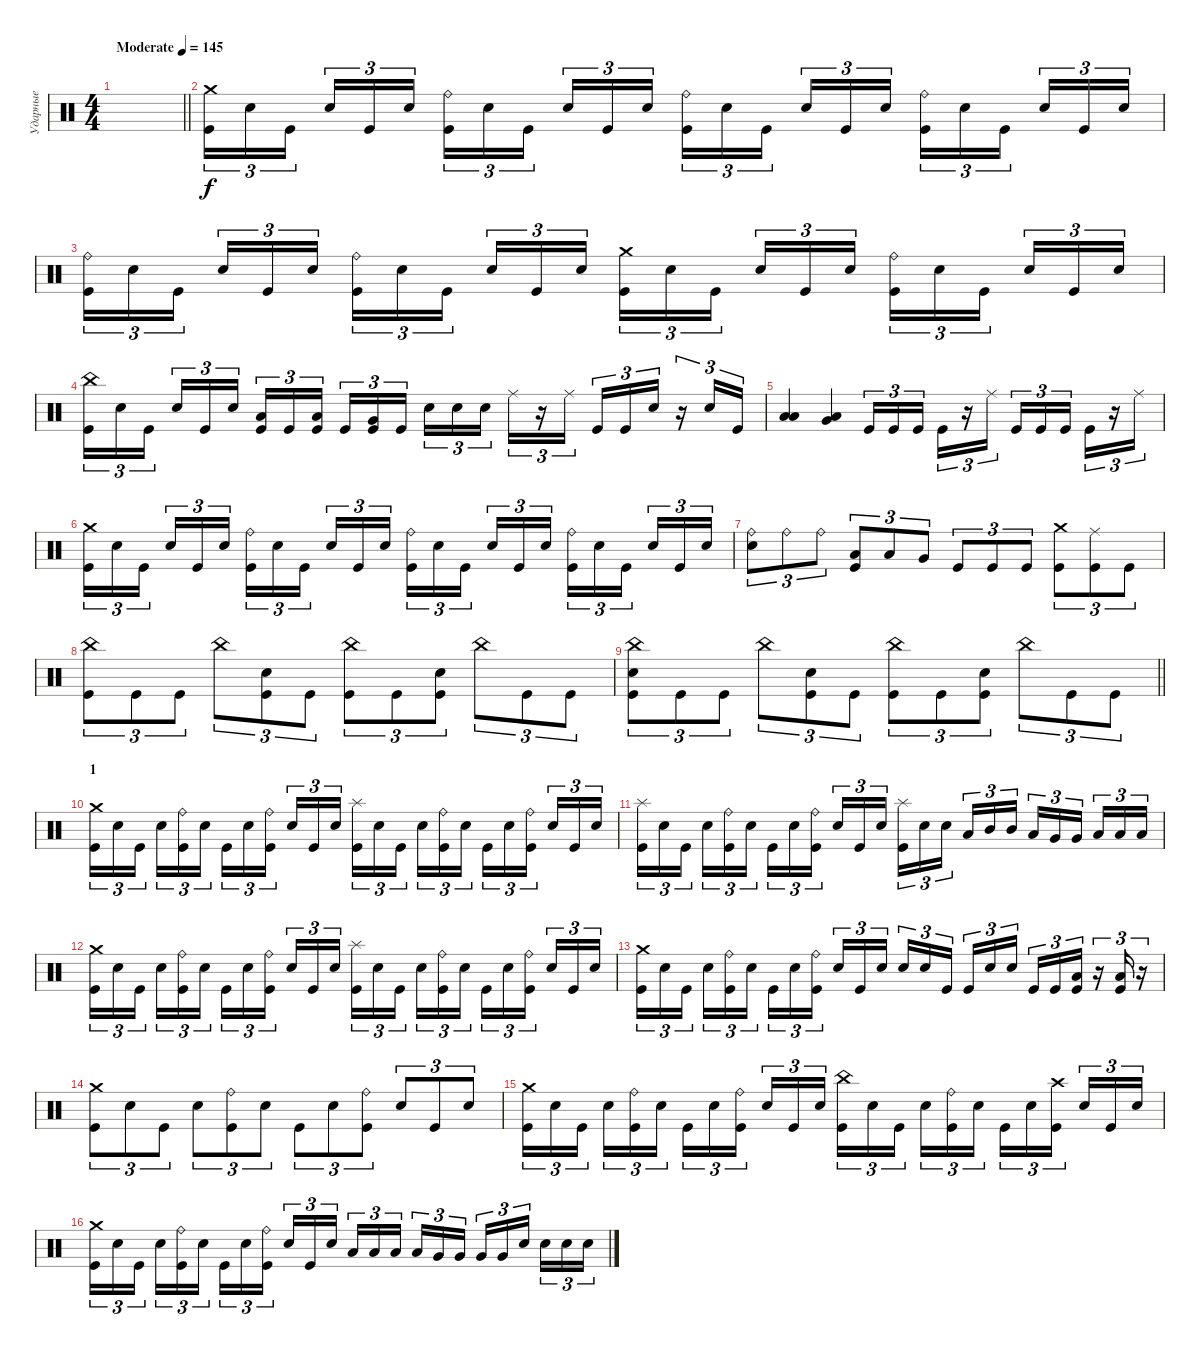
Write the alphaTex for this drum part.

\track ("Ударные" "Ударные") {instrument percussion}
\staff {score}
\articulation defaults
\ts (4 4)
\tempo (145 "Moderate")
\clef neutral
\barLineRight lightlight
\ks c
|
\section ("" " ")
("Crash medium (hit)" "Kick (hit)").16{tu (3 2)} "Electric Snare (hit)".16{tu (3 2)} "Kick (hit)".16{tu (3 2) beam splitsecondary} "Electric Snare (hit)".16{tu (3 2)} "Kick (hit)".16{tu (3 2)} "Electric Snare (hit)".16{tu (3 2)} ("Ride (bell)" "Kick (hit)").16{tu (3 2)} "Electric Snare (hit)".16{tu (3 2)} "Kick (hit)".16{tu (3 2) beam splitsecondary} "Electric Snare (hit)".16{tu (3 2)} "Kick (hit)".16{tu (3 2)} "Electric Snare (hit)".16{tu (3 2)} ("Ride (bell)" "Kick (hit)").16{tu (3 2)} "Electric Snare (hit)".16{tu (3 2)} "Kick (hit)".16{tu (3 2) beam splitsecondary} "Electric Snare (hit)".16{tu (3 2)} "Kick (hit)".16{tu (3 2)} "Electric Snare (hit)".16{tu (3 2)} ("Ride (bell)" "Kick (hit)").16{tu (3 2)} "Electric Snare (hit)".16{tu (3 2)} "Kick (hit)".16{tu (3 2) beam splitsecondary} "Electric Snare (hit)".16{tu (3 2)} "Kick (hit)".16{tu (3 2)} "Electric Snare (hit)".16{tu (3 2)} |
("Ride (bell)" "Kick (hit)").16{tu (3 2)} "Electric Snare (hit)".16{tu (3 2)} "Kick (hit)".16{tu (3 2) beam splitsecondary} "Electric Snare (hit)".16{tu (3 2)} "Kick (hit)".16{tu (3 2)} "Electric Snare (hit)".16{tu (3 2)} ("Ride (bell)" "Kick (hit)").16{tu (3 2)} "Electric Snare (hit)".16{tu (3 2)} "Kick (hit)".16{tu (3 2) beam splitsecondary} "Electric Snare (hit)".16{tu (3 2)} "Kick (hit)".16{tu (3 2)} "Electric Snare (hit)".16{tu (3 2)} ("Crash medium (hit)" "Kick (hit)").16{tu (3 2)} "Electric Snare (hit)".16{tu (3 2)} "Kick (hit)".16{tu (3 2) beam splitsecondary} "Electric Snare (hit)".16{tu (3 2)} "Kick (hit)".16{tu (3 2)} "Electric Snare (hit)".16{tu (3 2)} ("Ride (bell)" "Kick (hit)").16{tu (3 2)} "Electric Snare (hit)".16{tu (3 2)} "Kick (hit)".16{tu (3 2) beam splitsecondary} "Electric Snare (hit)".16{tu (3 2)} "Kick (hit)".16{tu (3 2)} "Electric Snare (hit)".16{tu (3 2)} |
("China (hit)" "Kick (hit)").16{tu (3 2)} "Electric Snare (hit)".16{tu (3 2)} "Kick (hit)".16{tu (3 2) beam splitsecondary} "Electric Snare (hit)".16{tu (3 2)} "Kick (hit)".16{tu (3 2)} "Electric Snare (hit)".16{tu (3 2)} ("Low Tom (hit)" "Kick (hit)").16{tu (3 2)} "Kick (hit)".16{tu (3 2)} ("Low Tom (hit)" "Kick (hit)").16{tu (3 2) beam splitsecondary} "Kick (hit)".16{tu (3 2)} ("Very Low Tom (hit)" "Kick (hit)").16{tu (3 2)} "Kick (hit)".16{tu (3 2)} "Electric Snare (hit)".16{tu (3 2)} "Electric Snare (hit)".16{tu (3 2)} "Electric Snare (hit)".16{tu (3 2) beam splitsecondary} "Ride (middle)".16{tu (3 2)} r.16{tu (3 2)} "Ride (middle)".16{tu (3 2)} "Kick (hit)".16{tu (3 2)} "Kick (hit)".16{tu (3 2)} "Electric Snare (hit)".16{tu (3 2)} r.16{tu (3 2)} "Electric Snare (hit)".16{tu (3 2)} "Kick (hit)".16{tu (3 2)} |
("Low Tom (hit)" "Low Floor Tom (hit)").4 ("Very Low Tom (hit)" "Low Floor Tom (hit)").4 "Kick (hit)".16{tu (3 2)} "Kick (hit)".16{tu (3 2)} "Kick (hit)".16{tu (3 2) beam splitsecondary} "Kick (hit)".16{tu (3 2)} r.16{tu (3 2)} "Ride (middle)".16{tu (3 2)} "Kick (hit)".16{tu (3 2)} "Kick (hit)".16{tu (3 2)} "Kick (hit)".16{tu (3 2) beam splitsecondary} "Kick (hit)".16{tu (3 2)} r.16{tu (3 2)} "Ride (middle)".16{tu (3 2)} |
("Crash medium (hit)" "Kick (hit)").16{tu (3 2)} "Electric Snare (hit)".16{tu (3 2)} "Kick (hit)".16{tu (3 2) beam splitsecondary} "Electric Snare (hit)".16{tu (3 2)} "Kick (hit)".16{tu (3 2)} "Electric Snare (hit)".16{tu (3 2)} ("Ride (bell)" "Kick (hit)").16{tu (3 2)} "Electric Snare (hit)".16{tu (3 2)} "Kick (hit)".16{tu (3 2) beam splitsecondary} "Electric Snare (hit)".16{tu (3 2)} "Kick (hit)".16{tu (3 2)} "Electric Snare (hit)".16{tu (3 2)} ("Ride (bell)" "Kick (hit)").16{tu (3 2)} "Electric Snare (hit)".16{tu (3 2)} "Kick (hit)".16{tu (3 2) beam splitsecondary} "Electric Snare (hit)".16{tu (3 2)} "Kick (hit)".16{tu (3 2)} "Electric Snare (hit)".16{tu (3 2)} ("Ride (bell)" "Kick (hit)").16{tu (3 2)} "Electric Snare (hit)".16{tu (3 2)} "Kick (hit)".16{tu (3 2) beam splitsecondary} "Electric Snare (hit)".16{tu (3 2)} "Kick (hit)".16{tu (3 2)} "Electric Snare (hit)".16{tu (3 2)} |
("Ride (bell)" "Electric Snare (hit)").8{tu (3 2)} "Ride (bell)".8{tu (3 2)} "Ride (bell)".8{tu (3 2)} ("Low Tom (hit)" "Kick (hit)").8{tu (3 2)} "Low Tom (hit)".8{tu (3 2)} "Very Low Tom (hit)".8{tu (3 2)} "Kick (hit)".8{tu (3 2)} "Kick (hit)".8{tu (3 2)} "Kick (hit)".8{tu (3 2)} ("Crash medium (hit)" "Kick (hit)").8{tu (3 2)} ("Ride (middle)" "Kick (hit)").8{tu (3 2)} "Kick (hit)".8{tu (3 2)} |
("China (hit)" "Kick (hit)").8{tu (3 2)} "Kick (hit)".8{tu (3 2)} "Kick (hit)".8{tu (3 2)} "China (hit)".8{tu (3 2)} ("Electric Snare (hit)" "Kick (hit)").8{tu (3 2)} "Kick (hit)".8{tu (3 2)} ("China (hit)" "Kick (hit)").8{tu (3 2)} "Kick (hit)".8{tu (3 2)} ("Electric Snare (hit)" "Kick (hit)").8{tu (3 2)} "China (hit)".8{tu (3 2)} "Kick (hit)".8{tu (3 2)} "Kick (hit)".8{tu (3 2)} |
\barLineRight lightlight
("China (hit)" "Electric Snare (hit)" "Kick (hit)").8{tu (3 2)} "Kick (hit)".8{tu (3 2)} "Kick (hit)".8{tu (3 2)} "China (hit)".8{tu (3 2)} ("Electric Snare (hit)" "Kick (hit)").8{tu (3 2)} "Kick (hit)".8{tu (3 2)} ("China (hit)" "Kick (hit)").8{tu (3 2)} "Kick (hit)".8{tu (3 2)} ("Electric Snare (hit)" "Kick (hit)").8{tu (3 2)} "China (hit)".8{tu (3 2)} "Kick (hit)".8{tu (3 2)} "Kick (hit)".8{tu (3 2)} |
\section ("" "1")
("Crash medium (hit)" "Kick (hit)").16{tu (3 2)} "Electric Snare (hit)".16{tu (3 2)} "Kick (hit)".16{tu (3 2) beam splitsecondary} "Electric Snare (hit)".16{tu (3 2)} ("Ride (bell)" "Kick (hit)").16{tu (3 2)} "Electric Snare (hit)".16{tu (3 2)} "Kick (hit)".16{tu (3 2)} "Electric Snare (hit)".16{tu (3 2)} ("Ride (bell)" "Kick (hit)").16{tu (3 2) beam splitsecondary} "Electric Snare (hit)".16{tu (3 2)} "Kick (hit)".16{tu (3 2)} "Electric Snare (hit)".16{tu (3 2)} ("Splash (hit)" "Kick (hit)").16{tu (3 2)} "Electric Snare (hit)".16{tu (3 2)} "Kick (hit)".16{tu (3 2) beam splitsecondary} "Electric Snare (hit)".16{tu (3 2)} ("Ride (bell)" "Kick (hit)").16{tu (3 2)} "Electric Snare (hit)".16{tu (3 2)} "Kick (hit)".16{tu (3 2)} "Electric Snare (hit)".16{tu (3 2)} ("Ride (bell)" "Kick (hit)").16{tu (3 2) beam splitsecondary} "Electric Snare (hit)".16{tu (3 2)} "Kick (hit)".16{tu (3 2)} "Electric Snare (hit)".16{tu (3 2)} |
("Splash (hit)" "Kick (hit)").16{tu (3 2)} "Electric Snare (hit)".16{tu (3 2)} "Kick (hit)".16{tu (3 2) beam splitsecondary} "Electric Snare (hit)".16{tu (3 2)} ("Ride (bell)" "Kick (hit)").16{tu (3 2)} "Electric Snare (hit)".16{tu (3 2)} "Kick (hit)".16{tu (3 2)} "Electric Snare (hit)".16{tu (3 2)} ("Ride (bell)" "Kick (hit)").16{tu (3 2) beam splitsecondary} "Electric Snare (hit)".16{tu (3 2)} "Kick (hit)".16{tu (3 2)} "Electric Snare (hit)".16{tu (3 2)} ("Splash (hit)" "Kick (hit)").16{tu (3 2)} "Electric Snare (hit)".16{tu (3 2)} "Electric Snare (hit)".16{tu (3 2) beam splitsecondary} "Low Tom (hit)".16{tu (3 2)} "Mid Tom (hit)".16{tu (3 2)} "Mid Tom (hit)".16{tu (3 2)} "Low Tom (hit)".16{tu (3 2)} "Very Low Tom (hit)".16{tu (3 2)} "Very Low Tom (hit)".16{tu (3 2) beam splitsecondary} "Low Floor Tom (hit)".16{tu (3 2)} "Low Floor Tom (hit)".16{tu (3 2)} "Low Floor Tom (hit)".16{tu (3 2)} |
("Crash medium (hit)" "Kick (hit)").16{tu (3 2)} "Electric Snare (hit)".16{tu (3 2)} "Kick (hit)".16{tu (3 2) beam splitsecondary} "Electric Snare (hit)".16{tu (3 2)} ("Ride (bell)" "Kick (hit)").16{tu (3 2)} "Electric Snare (hit)".16{tu (3 2)} "Kick (hit)".16{tu (3 2)} "Electric Snare (hit)".16{tu (3 2)} ("Ride (bell)" "Kick (hit)").16{tu (3 2) beam splitsecondary} "Electric Snare (hit)".16{tu (3 2)} "Kick (hit)".16{tu (3 2)} "Electric Snare (hit)".16{tu (3 2)} ("Splash (hit)" "Kick (hit)").16{tu (3 2)} "Electric Snare (hit)".16{tu (3 2)} "Kick (hit)".16{tu (3 2) beam splitsecondary} "Electric Snare (hit)".16{tu (3 2)} ("Ride (bell)" "Kick (hit)").16{tu (3 2)} "Electric Snare (hit)".16{tu (3 2)} "Kick (hit)".16{tu (3 2)} "Electric Snare (hit)".16{tu (3 2)} ("Ride (bell)" "Kick (hit)").16{tu (3 2) beam splitsecondary} "Electric Snare (hit)".16{tu (3 2)} "Kick (hit)".16{tu (3 2)} "Electric Snare (hit)".16{tu (3 2)} |
("Crash medium (hit)" "Kick (hit)").16{tu (3 2)} "Electric Snare (hit)".16{tu (3 2)} "Kick (hit)".16{tu (3 2) beam splitsecondary} "Electric Snare (hit)".16{tu (3 2)} ("Ride (bell)" "Kick (hit)").16{tu (3 2)} "Electric Snare (hit)".16{tu (3 2)} "Kick (hit)".16{tu (3 2)} "Electric Snare (hit)".16{tu (3 2)} ("Ride (bell)" "Kick (hit)").16{tu (3 2) beam splitsecondary} "Electric Snare (hit)".16{tu (3 2)} "Kick (hit)".16{tu (3 2)} "Electric Snare (hit)".16{tu (3 2)} "Electric Snare (hit)".16{tu (3 2)} "Electric Snare (hit)".16{tu (3 2)} "Kick (hit)".16{tu (3 2) beam splitsecondary} "Kick (hit)".16{tu (3 2)} "Electric Snare (hit)".16{tu (3 2)} "Electric Snare (hit)".16{tu (3 2)} "Kick (hit)".16{tu (3 2)} "Kick (hit)".16{tu (3 2)} ("Low Floor Tom (hit)" "Kick (hit)").16{tu (3 2)} r.16{tu (3 2)} ("Low Floor Tom (hit)" "Kick (hit)").16{tu (3 2)} r.16{tu (3 2)} |
("Crash medium (hit)" "Kick (hit)").8{tu (3 2)} "Electric Snare (hit)".8{tu (3 2)} "Kick (hit)".8{tu (3 2)} "Electric Snare (hit)".8{tu (3 2)} ("Ride (bell)" "Kick (hit)").8{tu (3 2)} "Electric Snare (hit)".8{tu (3 2)} "Kick (hit)".8{tu (3 2)} "Electric Snare (hit)".8{tu (3 2)} ("Ride (bell)" "Kick (hit)").8{tu (3 2)} "Electric Snare (hit)".8{tu (3 2)} "Kick (hit)".8{tu (3 2)} "Electric Snare (hit)".8{tu (3 2)} |
("Crash medium (hit)" "Kick (hit)").16{tu (3 2)} "Electric Snare (hit)".16{tu (3 2)} "Kick (hit)".16{tu (3 2) beam splitsecondary} "Electric Snare (hit)".16{tu (3 2)} ("Ride (bell)" "Kick (hit)").16{tu (3 2)} "Electric Snare (hit)".16{tu (3 2)} "Kick (hit)".16{tu (3 2)} "Electric Snare (hit)".16{tu (3 2)} ("Ride (bell)" "Kick (hit)").16{tu (3 2) beam splitsecondary} "Electric Snare (hit)".16{tu (3 2)} "Kick (hit)".16{tu (3 2)} "Electric Snare (hit)".16{tu (3 2)} ("China (hit)" "Kick (hit)").16{tu (3 2)} "Electric Snare (hit)".16{tu (3 2)} "Kick (hit)".16{tu (3 2) beam splitsecondary} "Electric Snare (hit)".16{tu (3 2)} ("Ride (bell)" "Kick (hit)").16{tu (3 2)} "Electric Snare (hit)".16{tu (3 2)} "Kick (hit)".16{tu (3 2)} "Electric Snare (hit)".16{tu (3 2)} ("Crash high (hit)" "Kick (hit)").16{tu (3 2) beam splitsecondary} "Electric Snare (hit)".16{tu (3 2)} "Kick (hit)".16{tu (3 2)} "Electric Snare (hit)".16{tu (3 2)} |
("Crash medium (hit)" "Kick (hit)").16{tu (3 2)} "Electric Snare (hit)".16{tu (3 2)} "Kick (hit)".16{tu (3 2) beam splitsecondary} "Electric Snare (hit)".16{tu (3 2)} ("Ride (bell)" "Kick (hit)").16{tu (3 2)} "Electric Snare (hit)".16{tu (3 2)} "Kick (hit)".16{tu (3 2)} "Electric Snare (hit)".16{tu (3 2)} ("Ride (bell)" "Kick (hit)").16{tu (3 2) beam splitsecondary} "Electric Snare (hit)".16{tu (3 2)} "Kick (hit)".16{tu (3 2)} "Electric Snare (hit)".16{tu (3 2)} "Low Tom (hit)".16{tu (3 2)} "Low Tom (hit)".16{tu (3 2)} "Low Tom (hit)".16{tu (3 2) beam splitsecondary} "Low Tom (hit)".16{tu (3 2)} "Very Low Tom (hit)".16{tu (3 2)} "Very Low Tom (hit)".16{tu (3 2)} "Very Low Tom (hit)".16{tu (3 2)} "Very Low Tom (hit)".16{tu (3 2)} "Electric Snare (hit)".16{tu (3 2) beam splitsecondary} "Electric Snare (hit)".16{tu (3 2)} "Electric Snare (hit)".16{tu (3 2)} "Electric Snare (hit)".16{tu (3 2)}
